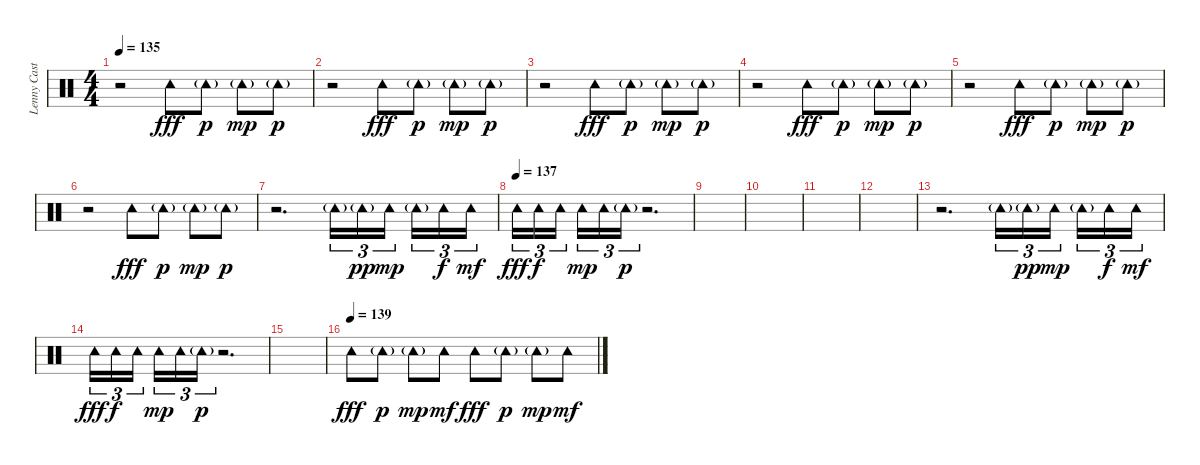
\track ("Lenny Castro - Percussion" "Lenny Cast") {instrument percussion}
\staff {score}
\articulation defaults
\ts (4 4)
\tempo 135
\clef neutral
\ks c
r.2{dy p} "Tambourine (hit)".8{dy fff} "Tambourine (hit)"{g}.8{dy p} "Tambourine (hit)"{g}.8{dy mp} "Tambourine (hit)"{g}.8{dy p} |
r.2 "Tambourine (hit)".8{dy fff} "Tambourine (hit)"{g}.8{dy p} "Tambourine (hit)"{g}.8{dy mp} "Tambourine (hit)"{g}.8{dy p} |
r.2 "Tambourine (hit)".8{dy fff} "Tambourine (hit)"{g}.8{dy p} "Tambourine (hit)"{g}.8{dy mp} "Tambourine (hit)"{g}.8{dy p} |
r.2 "Tambourine (hit)".8{dy fff} "Tambourine (hit)"{g}.8{dy p} "Tambourine (hit)"{g}.8{dy mp} "Tambourine (hit)"{g}.8{dy p} |
r.2 "Tambourine (hit)".8{dy fff} "Tambourine (hit)"{g}.8{dy p} "Tambourine (hit)"{g}.8{dy mp} "Tambourine (hit)"{g}.8{dy p} |
r.2 "Tambourine (hit)".8{dy fff} "Tambourine (hit)"{g}.8{dy p} "Tambourine (hit)"{g}.8{dy mp} "Tambourine (hit)"{g}.8{dy p} |
r.2{d} "Tambourine (hit)"{g}.16{tu (3 2)} "Tambourine (hit)"{g}.16{tu (3 2) dy pp} "Tambourine (hit)".16{tu (3 2) dy mp beam splitsecondary} "Tambourine (hit)"{g}.16{tu (3 2)} "Tambourine (hit)".16{tu (3 2) dy f} "Tambourine (hit)".16{tu (3 2) dy mf} |
\tempo (137)
"Tambourine (hit)".16{tu (3 2) dy fff} "Tambourine (hit)".16{tu (3 2) dy f} "Tambourine (hit)".16{tu (3 2) beam splitsecondary} "Tambourine (hit)".16{tu (3 2) dy mp} "Tambourine (hit)".16{tu (3 2)} "Tambourine (hit)"{g}.16{tu (3 2) dy p} r.2{d} |
|
|
|
|
r.2{d} "Tambourine (hit)"{g}.16{tu (3 2)} "Tambourine (hit)"{g}.16{tu (3 2) dy pp} "Tambourine (hit)".16{tu (3 2) dy mp beam splitsecondary} "Tambourine (hit)"{g}.16{tu (3 2)} "Tambourine (hit)".16{tu (3 2) dy f} "Tambourine (hit)".16{tu (3 2) dy mf} |
"Tambourine (hit)".16{tu (3 2) dy fff} "Tambourine (hit)".16{tu (3 2) dy f} "Tambourine (hit)".16{tu (3 2) beam splitsecondary} "Tambourine (hit)".16{tu (3 2) dy mp} "Tambourine (hit)".16{tu (3 2)} "Tambourine (hit)"{g}.16{tu (3 2) dy p} r.2{d} |
|
\tempo (139)
"Tambourine (hit)".8{dy fff} "Tambourine (hit)"{g}.8{dy p} "Tambourine (hit)"{g}.8{dy mp} "Tambourine (hit)".8{dy mf} "Tambourine (hit)".8{dy fff} "Tambourine (hit)"{g}.8{dy p} "Tambourine (hit)"{g}.8{dy mp} "Tambourine (hit)".8{dy mf}
